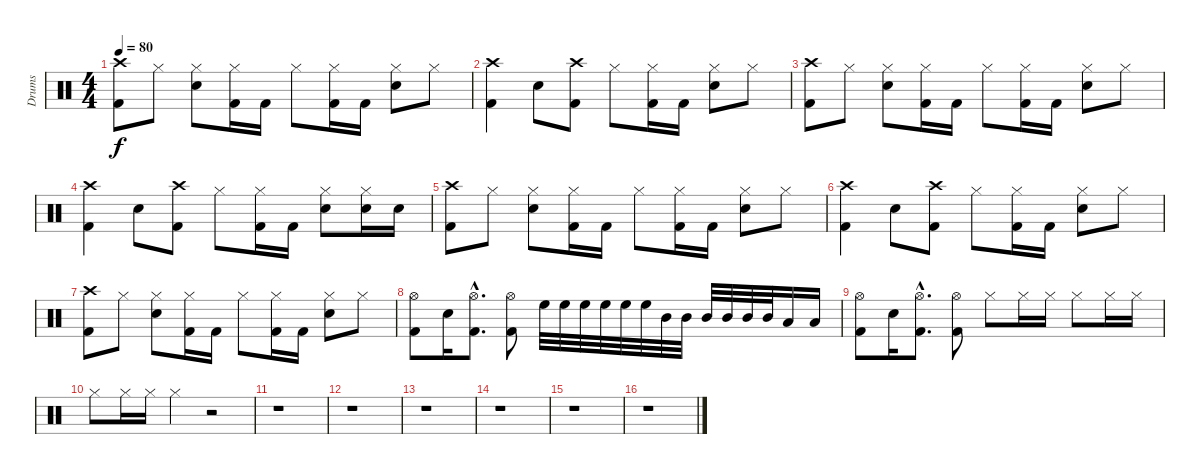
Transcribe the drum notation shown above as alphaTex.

\track ("Drums" "Drums") {instrument percussion}
\staff {score}
\articulation defaults
\ts (4 4)
\tempo 80
\clef neutral
\ks c
("Crash high (hit)" "Kick (hit) 2").8{dy f} "Hi-Hat (closed)".8 ("Hi-Hat (closed)" "Snare (hit) 2").8 ("Hi-Hat (closed)" "Kick (hit) 2").16 "Kick (hit) 2".16 "Hi-Hat (closed)".8 ("Hi-Hat (closed)" "Kick (hit) 2").16 "Kick (hit) 2".16 ("Hi-Hat (closed)" "Snare (hit) 2").8 "Hi-Hat (closed)".8 |
("Crash high (hit)" "Kick (hit) 2").4 "Snare (hit) 2".8 ("Crash high (hit)" "Kick (hit) 2").8 "Hi-Hat (closed)".8 ("Hi-Hat (closed)" "Kick (hit) 2").16 "Kick (hit) 2".16 ("Hi-Hat (closed)" "Snare (hit) 2").8 "Hi-Hat (closed)".8 |
("Crash high (hit)" "Kick (hit) 2").8 "Hi-Hat (closed)".8 ("Hi-Hat (closed)" "Snare (hit) 2").8 ("Hi-Hat (closed)" "Kick (hit) 2").16 "Kick (hit) 2".16 "Hi-Hat (closed)".8 ("Hi-Hat (closed)" "Kick (hit) 2").16 "Kick (hit) 2".16 ("Hi-Hat (closed)" "Snare (hit) 2").8 "Hi-Hat (closed)".8 |
("Crash high (hit)" "Kick (hit) 2").4 "Snare (hit) 2".8 ("Crash high (hit)" "Kick (hit) 2").8 "Hi-Hat (closed)".8 ("Hi-Hat (closed)" "Kick (hit) 2").16 "Kick (hit) 2".16 ("Hi-Hat (closed)" "Snare (hit) 2").8 ("Hi-Hat (closed)" "Snare (hit) 2").16 "Snare (hit) 2".16 |
("Crash high (hit)" "Kick (hit) 2").8 "Hi-Hat (closed)".8 ("Hi-Hat (closed)" "Snare (hit) 2").8 ("Hi-Hat (closed)" "Kick (hit) 2").16 "Kick (hit) 2".16 "Hi-Hat (closed)".8 ("Hi-Hat (closed)" "Kick (hit) 2").16 "Kick (hit) 2".16 ("Hi-Hat (closed)" "Snare (hit) 2").8 "Hi-Hat (closed)".8 |
("Crash high (hit)" "Kick (hit) 2").4 "Snare (hit) 2".8 ("Crash high (hit)" "Kick (hit) 2").8 "Hi-Hat (closed)".8 ("Hi-Hat (closed)" "Kick (hit) 2").16 "Kick (hit) 2".16 ("Hi-Hat (closed)" "Snare (hit) 2").8 "Hi-Hat (closed)".8 |
("Crash high (hit)" "Kick (hit) 2").8 "Hi-Hat (closed)".8 ("Hi-Hat (closed)" "Snare (hit) 2").8 ("Hi-Hat (closed)" "Kick (hit) 2").16 "Kick (hit) 2".16 "Hi-Hat (closed)".8 ("Hi-Hat (closed)" "Kick (hit) 2").16 "Kick (hit) 2".16 ("Hi-Hat (closed)" "Snare (hit) 2").8 "Hi-Hat (closed)".8 |
("Hi-Hat (open)" "Kick (hit) 2").8 "Snare (hit) 2".16 ("Hi-Hat (open)"{hac} "Kick (hit) 2"{hac}).8{d} ("Hi-Hat (open)" "Kick (hit) 2").8 "High Floor Tom (hit)".32 "High Floor Tom (hit)".32 "High Floor Tom (hit)".32 "High Floor Tom (hit)".32 "High Floor Tom (hit)".32 "High Floor Tom (hit)".32 "Mid Tom (hit)".32 "Mid Tom (hit)".32 "Mid Tom (hit)".32 "Mid Tom (hit)".32 "Mid Tom (hit)".32 "Mid Tom (hit)".32 "Low Tom (hit)".16 "Low Floor Tom (hit)".16 |
("Hi-Hat (open)" "Kick (hit) 2").8 "Snare (hit) 2".16 ("Hi-Hat (open)"{hac} "Kick (hit) 2"{hac}).8{d} ("Hi-Hat (open)" "Kick (hit) 2").8 "Hi-Hat (closed)".8 "Hi-Hat (closed)".16 "Hi-Hat (closed)".16 "Hi-Hat (closed)".8 "Hi-Hat (closed)".16 "Hi-Hat (closed)".16 |
"Hi-Hat (closed)".8 "Hi-Hat (closed)".16 "Hi-Hat (closed)".16 "Hi-Hat (closed)".4 r.2 |
r.1 |
r.1 |
r.1 |
r.1 |
r.1 |
r.1
